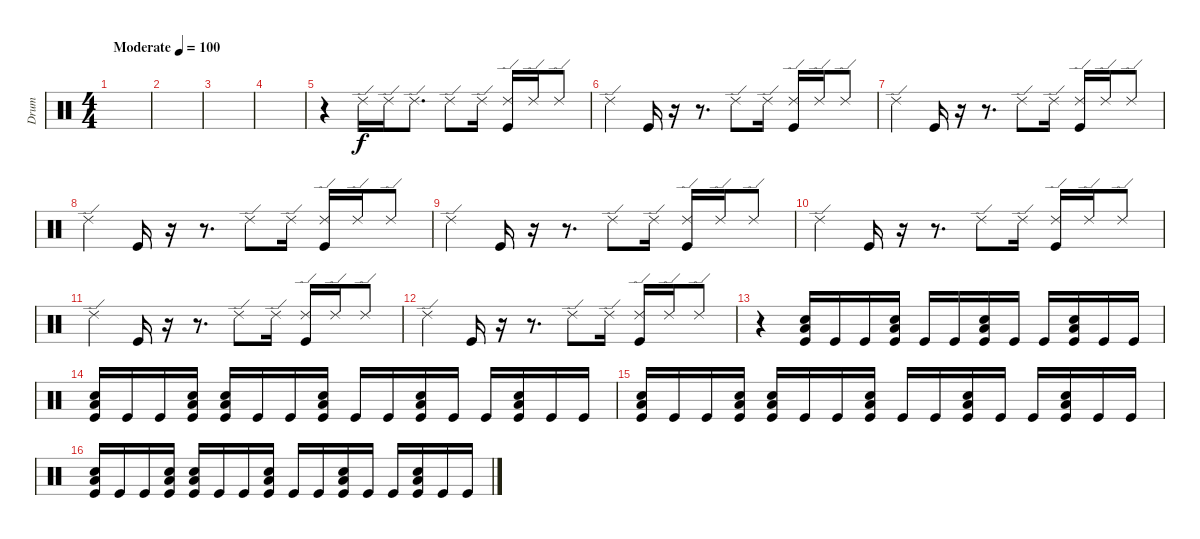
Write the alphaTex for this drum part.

\track ("Drum" "Drum") {instrument percussion}
\staff {score}
\articulation defaults
\ts (4 4)
\tempo (100 "Moderate")
\clef neutral
\ks c
|
|
|
|
r.4 "Ride (edge) 2".16 "Ride (edge) 2".16 "Ride (edge) 2".8{d} "Ride (edge) 2".8 "Ride (edge) 2".16 ("Ride (edge) 2" "Kick (hit)").16 "Ride (edge) 2".16 "Ride (edge) 2".8 |
"Ride (edge) 2".4 "Kick (hit)".16 r.16 r.8{d} "Ride (edge) 2".8 "Ride (edge) 2".16 ("Ride (edge) 2" "Kick (hit)").16 "Ride (edge) 2".16 "Ride (edge) 2".8 |
"Ride (edge) 2".4 "Kick (hit)".16 r.16 r.8{d} "Ride (edge) 2".8 "Ride (edge) 2".16 ("Ride (edge) 2" "Kick (hit)").16 "Ride (edge) 2".16 "Ride (edge) 2".8 |
"Ride (edge) 2".4 "Kick (hit)".16 r.16 r.8{d} "Ride (edge) 2".8 "Ride (edge) 2".16 ("Ride (edge) 2" "Kick (hit)").16 "Ride (edge) 2".16 "Ride (edge) 2".8 |
"Ride (edge) 2".4 "Kick (hit)".16 r.16 r.8{d} "Ride (edge) 2".8 "Ride (edge) 2".16 ("Ride (edge) 2" "Kick (hit)").16 "Ride (edge) 2".16 "Ride (edge) 2".8 |
"Ride (edge) 2".4 "Kick (hit)".16 r.16 r.8{d} "Ride (edge) 2".8 "Ride (edge) 2".16 ("Ride (edge) 2" "Kick (hit)").16 "Ride (edge) 2".16 "Ride (edge) 2".8 |
"Ride (edge) 2".4 "Kick (hit)".16 r.16 r.8{d} "Ride (edge) 2".8 "Ride (edge) 2".16 ("Ride (edge) 2" "Kick (hit)").16 "Ride (edge) 2".16 "Ride (edge) 2".8 |
"Ride (edge) 2".4 "Kick (hit)".16 r.16 r.8{d} "Ride (edge) 2".8 "Ride (edge) 2".16 ("Ride (edge) 2" "Kick (hit)").16 "Ride (edge) 2".16 "Ride (edge) 2".8 |
r.4 ("Snare (hit) 2" "Low Tom (hit)" "Kick (hit)").16 "Kick (hit)".16 "Kick (hit)".16 ("Snare (hit) 2" "Low Tom (hit)" "Kick (hit)").16 "Kick (hit)".16 "Kick (hit)".16 ("Snare (hit) 2" "Low Tom (hit)" "Kick (hit)").16 "Kick (hit)".16 "Kick (hit)".16 ("Snare (hit) 2" "Low Tom (hit)" "Kick (hit)").16 "Kick (hit)".16 "Kick (hit)".16 |
("Snare (hit) 2" "Low Tom (hit)" "Kick (hit)").16 "Kick (hit)".16 "Kick (hit)".16 ("Snare (hit) 2" "Low Tom (hit)" "Kick (hit)").16 ("Snare (hit) 2" "Low Tom (hit)" "Kick (hit)").16 "Kick (hit)".16 "Kick (hit)".16 ("Snare (hit) 2" "Low Tom (hit)" "Kick (hit)").16 "Kick (hit)".16 "Kick (hit)".16 ("Snare (hit) 2" "Low Tom (hit)" "Kick (hit)").16 "Kick (hit)".16 "Kick (hit)".16 ("Snare (hit) 2" "Low Tom (hit)" "Kick (hit)").16 "Kick (hit)".16 "Kick (hit)".16 |
("Snare (hit) 2" "Low Tom (hit)" "Kick (hit)").16 "Kick (hit)".16 "Kick (hit)".16 ("Snare (hit) 2" "Low Tom (hit)" "Kick (hit)").16 ("Snare (hit) 2" "Low Tom (hit)" "Kick (hit)").16 "Kick (hit)".16 "Kick (hit)".16 ("Snare (hit) 2" "Low Tom (hit)" "Kick (hit)").16 "Kick (hit)".16 "Kick (hit)".16 ("Snare (hit) 2" "Low Tom (hit)" "Kick (hit)").16 "Kick (hit)".16 "Kick (hit)".16 ("Snare (hit) 2" "Low Tom (hit)" "Kick (hit)").16 "Kick (hit)".16 "Kick (hit)".16 |
("Snare (hit) 2" "Low Tom (hit)" "Kick (hit)").16 "Kick (hit)".16 "Kick (hit)".16 ("Snare (hit) 2" "Low Tom (hit)" "Kick (hit)").16 ("Snare (hit) 2" "Low Tom (hit)" "Kick (hit)").16 "Kick (hit)".16 "Kick (hit)".16 ("Snare (hit) 2" "Low Tom (hit)" "Kick (hit)").16 "Kick (hit)".16 "Kick (hit)".16 ("Snare (hit) 2" "Low Tom (hit)" "Kick (hit)").16 "Kick (hit)".16 "Kick (hit)".16 ("Snare (hit) 2" "Low Tom (hit)" "Kick (hit)").16 "Kick (hit)".16 "Kick (hit)".16
